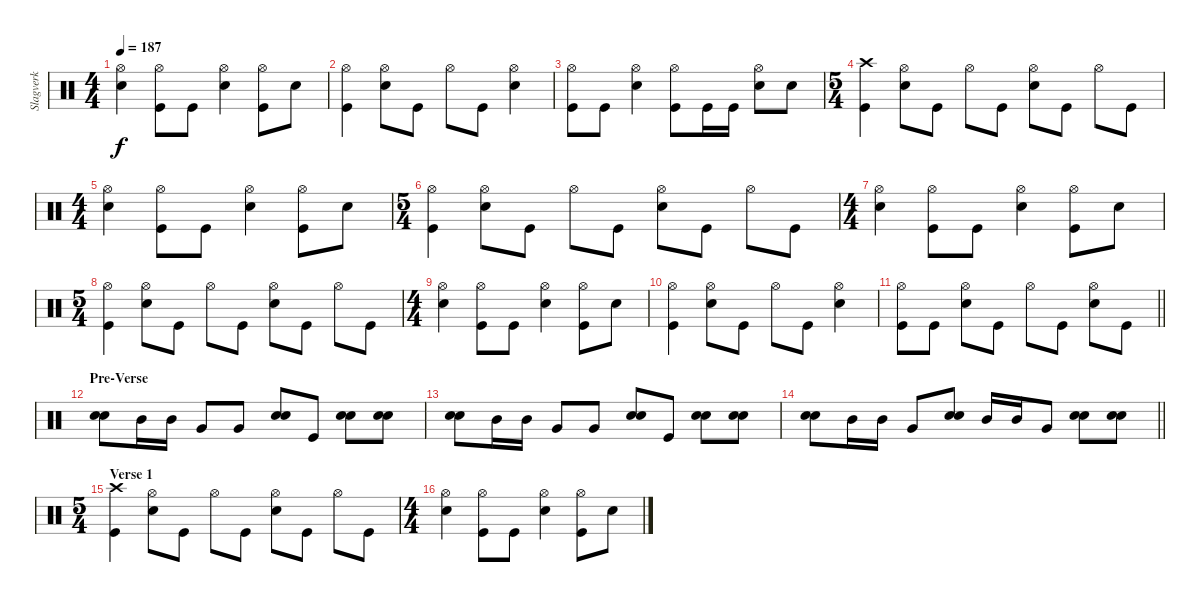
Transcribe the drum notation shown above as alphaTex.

\track ("Slagverk" "Slagverk") {instrument percussion}
\staff {score}
\articulation defaults
\ts (4 4)
\tempo 187
\clef neutral
\ks c
("Hi-Hat (open)" "Electric Snare (hit)").4{dy f} ("Hi-Hat (open)" "Kick (hit)").8 "Kick (hit)".8 ("Hi-Hat (open)" "Electric Snare (hit)").4 ("Hi-Hat (open)" "Kick (hit)").8 "Electric Snare (hit)".8 |
("Hi-Hat (open)" "Kick (hit)").4 ("Hi-Hat (open)" "Electric Snare (hit)").8 "Kick (hit)".8 "Hi-Hat (open)".8 "Kick (hit)".8 ("Hi-Hat (open)" "Electric Snare (hit)").4 |
("Hi-Hat (open)" "Kick (hit)").8 "Kick (hit)".8 ("Hi-Hat (open)" "Electric Snare (hit)").4 ("Hi-Hat (open)" "Kick (hit)").8 "Kick (hit)".16 "Kick (hit)".16 ("Hi-Hat (open)" "Electric Snare (hit)").8 "Electric Snare (hit)".8 |
\ts (5 4)
("Crash high (hit)" "Kick (hit)").4 ("Hi-Hat (open)" "Electric Snare (hit)").8 "Kick (hit)".8 "Hi-Hat (open)".8 "Kick (hit)".8 ("Hi-Hat (open)" "Electric Snare (hit)").8 "Kick (hit)".8 "Hi-Hat (open)".8 "Kick (hit)".8 |
\ts (4 4)
("Hi-Hat (open)" "Electric Snare (hit)").4 ("Hi-Hat (open)" "Kick (hit)").8 "Kick (hit)".8 ("Hi-Hat (open)" "Electric Snare (hit)").4 ("Hi-Hat (open)" "Kick (hit)").8 "Electric Snare (hit)".8 |
\ts (5 4)
("Hi-Hat (open)" "Kick (hit)").4 ("Hi-Hat (open)" "Electric Snare (hit)").8 "Kick (hit)".8 "Hi-Hat (open)".8 "Kick (hit)".8 ("Hi-Hat (open)" "Electric Snare (hit)").8 "Kick (hit)".8 "Hi-Hat (open)".8 "Kick (hit)".8 |
\ts (4 4)
("Hi-Hat (open)" "Electric Snare (hit)").4 ("Hi-Hat (open)" "Kick (hit)").8 "Kick (hit)".8 ("Hi-Hat (open)" "Electric Snare (hit)").4 ("Hi-Hat (open)" "Kick (hit)").8 "Electric Snare (hit)".8 |
\ts (5 4)
("Hi-Hat (open)" "Kick (hit)").4 ("Hi-Hat (open)" "Electric Snare (hit)").8 "Kick (hit)".8 "Hi-Hat (open)".8 "Kick (hit)".8 ("Hi-Hat (open)" "Electric Snare (hit)").8 "Kick (hit)".8 "Hi-Hat (open)".8 "Kick (hit)".8 |
\ts (4 4)
("Hi-Hat (open)" "Electric Snare (hit)").4 ("Hi-Hat (open)" "Kick (hit)").8 "Kick (hit)".8 ("Hi-Hat (open)" "Electric Snare (hit)").4 ("Hi-Hat (open)" "Kick (hit)").8 "Electric Snare (hit)".8 |
("Hi-Hat (open)" "Kick (hit)").4 ("Hi-Hat (open)" "Electric Snare (hit)").8 "Kick (hit)".8 "Hi-Hat (open)".8 "Kick (hit)".8 ("Hi-Hat (open)" "Electric Snare (hit)").4 |
\barLineRight lightlight
("Hi-Hat (open)" "Kick (hit)").8 "Kick (hit)".8 ("Hi-Hat (open)" "Electric Snare (hit)").8 "Kick (hit)".8 "Hi-Hat (open)".8 "Kick (hit)".8 ("Hi-Hat (open)" "Electric Snare (hit)").8 "Kick (hit)".8 |
\section ("" "Pre-Verse")
("Electric Snare (hit)" "Electric Snare (hit)").8 "Mid Tom (hit)".16 "Mid Tom (hit)".16 "Very Low Tom (hit)".8 "Very Low Tom (hit)".8 ("Electric Snare (hit)" "Electric Snare (hit)").8 "Kick (hit)".8 ("Electric Snare (hit)" "Electric Snare (hit)").8 ("Electric Snare (hit)" "Electric Snare (hit)").8 |
("Electric Snare (hit)" "Electric Snare (hit)").8 "Mid Tom (hit)".16 "Mid Tom (hit)".16 "Very Low Tom (hit)".8 "Very Low Tom (hit)".8 ("Electric Snare (hit)" "Electric Snare (hit)").8 "Kick (hit)".8 ("Electric Snare (hit)" "Electric Snare (hit)").8 ("Electric Snare (hit)" "Electric Snare (hit)").8 |
\barLineRight lightlight
("Electric Snare (hit)" "Electric Snare (hit)").8 "Mid Tom (hit)".16 "Mid Tom (hit)".16 "Very Low Tom (hit)".8 ("Electric Snare (hit)" "Electric Snare (hit)").8 "Mid Tom (hit)".16 "Mid Tom (hit)".16 "Very Low Tom (hit)".8 ("Electric Snare (hit)" "Electric Snare (hit)").8 ("Electric Snare (hit)" "Electric Snare (hit)").8 |
\ts (5 4)
\section ("" "Verse 1")
("Crash high (hit)" "Kick (hit)").4 ("Hi-Hat (open)" "Electric Snare (hit)").8 "Kick (hit)".8 "Hi-Hat (open)".8 "Kick (hit)".8 ("Hi-Hat (open)" "Electric Snare (hit)").8 "Kick (hit)".8 "Hi-Hat (open)".8 "Kick (hit)".8 |
\ts (4 4)
("Hi-Hat (open)" "Electric Snare (hit)").4 ("Hi-Hat (open)" "Kick (hit)").8 "Kick (hit)".8 ("Hi-Hat (open)" "Electric Snare (hit)").4 ("Hi-Hat (open)" "Kick (hit)").8 "Electric Snare (hit)".8
